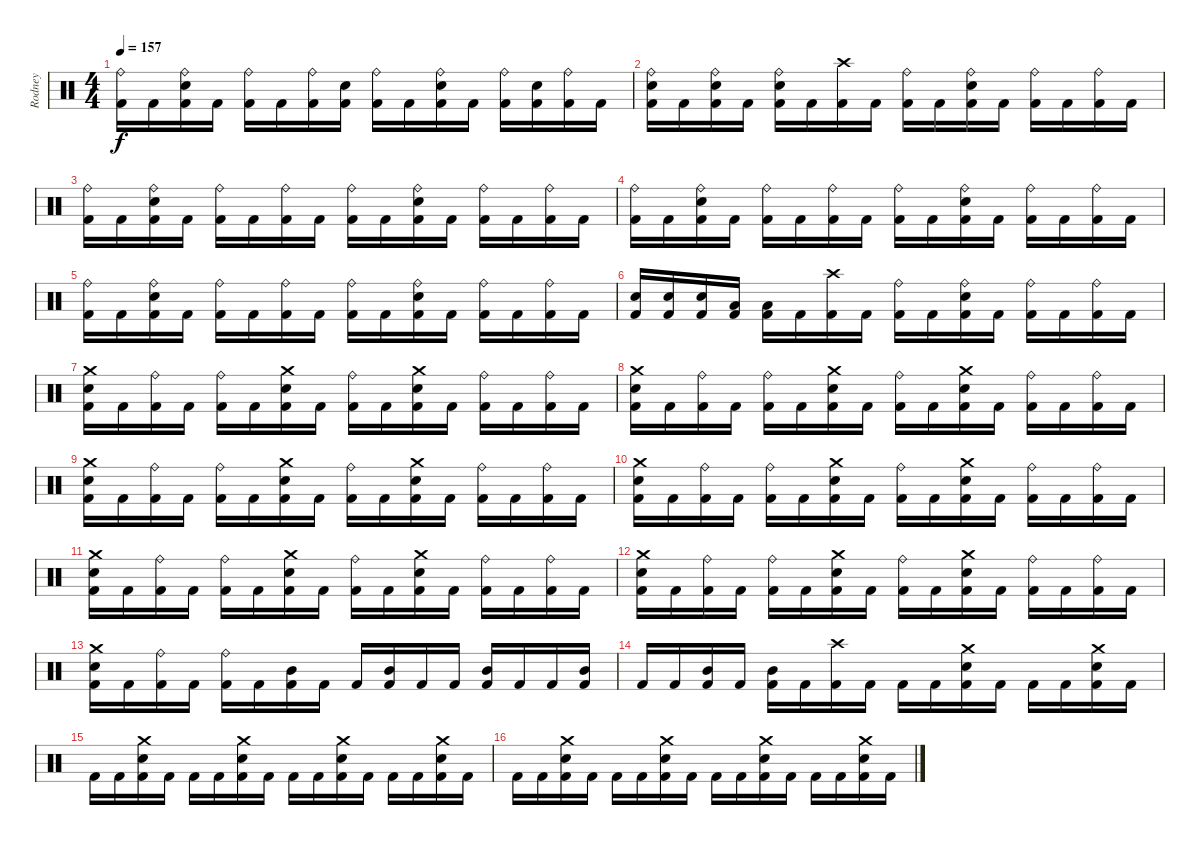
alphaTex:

\track ("Rodney" "Rodney") {instrument percussion}
\staff {score}
\articulation defaults
\ts (4 4)
\tempo 157
\clef neutral
\ks c
("Ride (bell)" "Kick (hit) 2").16{dy f} "Kick (hit) 2".16 ("Ride (bell)" "Snare (hit) 2" "Kick (hit) 2").16 "Kick (hit) 2".16 ("Ride (bell)" "Kick (hit) 2").16 "Kick (hit) 2".16 ("Ride (bell)" "Kick (hit) 2").16 ("Snare (hit) 2" "Kick (hit) 2").16 ("Ride (bell)" "Kick (hit) 2").16 "Kick (hit) 2".16 ("Ride (bell)" "Snare (hit) 2" "Kick (hit) 2").16 "Kick (hit) 2".16 ("Ride (bell)" "Kick (hit) 2").16 ("Snare (hit) 2" "Kick (hit) 2").16 ("Ride (bell)" "Kick (hit) 2").16 "Kick (hit) 2".16 |
("Ride (bell)" "Snare (hit) 2" "Kick (hit) 2").16 "Kick (hit) 2".16 ("Ride (bell)" "Snare (hit) 2" "Kick (hit) 2").16 "Kick (hit) 2".16 ("Ride (bell)" "Snare (hit) 2" "Kick (hit) 2").16 "Kick (hit) 2".16 ("Crash high (hit)" "Kick (hit) 2").16 "Kick (hit) 2".16 ("Ride (bell)" "Kick (hit) 2").16 "Kick (hit) 2".16 ("Ride (bell)" "Snare (hit) 2" "Kick (hit) 2").16 "Kick (hit) 2".16 ("Ride (bell)" "Kick (hit) 2").16 "Kick (hit) 2".16 ("Ride (bell)" "Kick (hit) 2").16 "Kick (hit) 2".16 |
("Ride (bell)" "Kick (hit) 2").16 "Kick (hit) 2".16 ("Ride (bell)" "Snare (hit) 2" "Kick (hit) 2").16 "Kick (hit) 2".16 ("Ride (bell)" "Kick (hit) 2").16 "Kick (hit) 2".16 ("Ride (bell)" "Kick (hit) 2").16 "Kick (hit) 2".16 ("Ride (bell)" "Kick (hit) 2").16 "Kick (hit) 2".16 ("Ride (bell)" "Snare (hit) 2" "Kick (hit) 2").16 "Kick (hit) 2".16 ("Ride (bell)" "Kick (hit) 2").16 "Kick (hit) 2".16 ("Ride (bell)" "Kick (hit) 2").16 "Kick (hit) 2".16 |
("Ride (bell)" "Kick (hit) 2").16 "Kick (hit) 2".16 ("Ride (bell)" "Snare (hit) 2" "Kick (hit) 2").16 "Kick (hit) 2".16 ("Ride (bell)" "Kick (hit) 2").16 "Kick (hit) 2".16 ("Ride (bell)" "Kick (hit) 2").16 "Kick (hit) 2".16 ("Ride (bell)" "Kick (hit) 2").16 "Kick (hit) 2".16 ("Ride (bell)" "Snare (hit) 2" "Kick (hit) 2").16 "Kick (hit) 2".16 ("Ride (bell)" "Kick (hit) 2").16 "Kick (hit) 2".16 ("Ride (bell)" "Kick (hit) 2").16 "Kick (hit) 2".16 |
("Ride (bell)" "Kick (hit) 2").16 "Kick (hit) 2".16 ("Ride (bell)" "Snare (hit) 2" "Kick (hit) 2").16 "Kick (hit) 2".16 ("Ride (bell)" "Kick (hit) 2").16 "Kick (hit) 2".16 ("Ride (bell)" "Kick (hit) 2").16 "Kick (hit) 2".16 ("Ride (bell)" "Kick (hit) 2").16 "Kick (hit) 2".16 ("Ride (bell)" "Snare (hit) 2" "Kick (hit) 2").16 "Kick (hit) 2".16 ("Ride (bell)" "Kick (hit) 2").16 "Kick (hit) 2".16 ("Ride (bell)" "Kick (hit) 2").16 "Kick (hit) 2".16 |
("Snare (hit) 2" "Kick (hit) 2").16 ("Snare (hit) 2" "Kick (hit) 2").16 ("Snare (hit) 2" "Kick (hit) 2").16 ("Low Tom (hit)" "Kick (hit) 2").16 ("Low Tom (hit)" "Kick (hit) 2").16 "Kick (hit) 2".16 ("Crash high (hit)" "Kick (hit) 2").16 "Kick (hit) 2".16 ("Ride (bell)" "Kick (hit) 2").16 "Kick (hit) 2".16 ("Ride (bell)" "Snare (hit) 2" "Kick (hit) 2").16 "Kick (hit) 2".16 ("Ride (bell)" "Kick (hit) 2").16 "Kick (hit) 2".16 ("Ride (bell)" "Kick (hit) 2").16 "Kick (hit) 2".16 |
("Crash medium (hit)" "Snare (hit) 2" "Kick (hit) 2").16 "Kick (hit) 2".16 ("Ride (bell)" "Kick (hit) 2").16 "Kick (hit) 2".16 ("Ride (bell)" "Kick (hit) 2").16 "Kick (hit) 2".16 ("Crash medium (hit)" "Snare (hit) 2" "Kick (hit) 2").16 "Kick (hit) 2".16 ("Ride (bell)" "Kick (hit) 2").16 "Kick (hit) 2".16 ("Crash medium (hit)" "Snare (hit) 2" "Kick (hit) 2").16 "Kick (hit) 2".16 ("Ride (bell)" "Kick (hit) 2").16 "Kick (hit) 2".16 ("Ride (bell)" "Kick (hit) 2").16 "Kick (hit) 2".16 |
("Crash medium (hit)" "Snare (hit) 2" "Kick (hit) 2").16 "Kick (hit) 2".16 ("Ride (bell)" "Kick (hit) 2").16 "Kick (hit) 2".16 ("Ride (bell)" "Kick (hit) 2").16 "Kick (hit) 2".16 ("Crash medium (hit)" "Snare (hit) 2" "Kick (hit) 2").16 "Kick (hit) 2".16 ("Ride (bell)" "Kick (hit) 2").16 "Kick (hit) 2".16 ("Crash medium (hit)" "Snare (hit) 2" "Kick (hit) 2").16 "Kick (hit) 2".16 ("Ride (bell)" "Kick (hit) 2").16 "Kick (hit) 2".16 ("Ride (bell)" "Kick (hit) 2").16 "Kick (hit) 2".16 |
("Crash medium (hit)" "Snare (hit) 2" "Kick (hit) 2").16 "Kick (hit) 2".16 ("Ride (bell)" "Kick (hit) 2").16 "Kick (hit) 2".16 ("Ride (bell)" "Kick (hit) 2").16 "Kick (hit) 2".16 ("Crash medium (hit)" "Snare (hit) 2" "Kick (hit) 2").16 "Kick (hit) 2".16 ("Ride (bell)" "Kick (hit) 2").16 "Kick (hit) 2".16 ("Crash medium (hit)" "Snare (hit) 2" "Kick (hit) 2").16 "Kick (hit) 2".16 ("Ride (bell)" "Kick (hit) 2").16 "Kick (hit) 2".16 ("Ride (bell)" "Kick (hit) 2").16 "Kick (hit) 2".16 |
("Crash medium (hit)" "Snare (hit) 2" "Kick (hit) 2").16 "Kick (hit) 2".16 ("Ride (bell)" "Kick (hit) 2").16 "Kick (hit) 2".16 ("Ride (bell)" "Kick (hit) 2").16 "Kick (hit) 2".16 ("Crash medium (hit)" "Snare (hit) 2" "Kick (hit) 2").16 "Kick (hit) 2".16 ("Ride (bell)" "Kick (hit) 2").16 "Kick (hit) 2".16 ("Crash medium (hit)" "Snare (hit) 2" "Kick (hit) 2").16 "Kick (hit) 2".16 ("Ride (bell)" "Kick (hit) 2").16 "Kick (hit) 2".16 ("Ride (bell)" "Kick (hit) 2").16 "Kick (hit) 2".16 |
("Crash medium (hit)" "Snare (hit) 2" "Kick (hit) 2").16 "Kick (hit) 2".16 ("Ride (bell)" "Kick (hit) 2").16 "Kick (hit) 2".16 ("Ride (bell)" "Kick (hit) 2").16 "Kick (hit) 2".16 ("Crash medium (hit)" "Snare (hit) 2" "Kick (hit) 2").16 "Kick (hit) 2".16 ("Ride (bell)" "Kick (hit) 2").16 "Kick (hit) 2".16 ("Crash medium (hit)" "Snare (hit) 2" "Kick (hit) 2").16 "Kick (hit) 2".16 ("Ride (bell)" "Kick (hit) 2").16 "Kick (hit) 2".16 ("Ride (bell)" "Kick (hit) 2").16 "Kick (hit) 2".16 |
("Crash medium (hit)" "Snare (hit) 2" "Kick (hit) 2").16 "Kick (hit) 2".16 ("Ride (bell)" "Kick (hit) 2").16 "Kick (hit) 2".16 ("Ride (bell)" "Kick (hit) 2").16 "Kick (hit) 2".16 ("Crash medium (hit)" "Snare (hit) 2" "Kick (hit) 2").16 "Kick (hit) 2".16 ("Ride (bell)" "Kick (hit) 2").16 "Kick (hit) 2".16 ("Crash medium (hit)" "Snare (hit) 2" "Kick (hit) 2").16 "Kick (hit) 2".16 ("Ride (bell)" "Kick (hit) 2").16 "Kick (hit) 2".16 ("Ride (bell)" "Kick (hit) 2").16 "Kick (hit) 2".16 |
("Crash medium (hit)" "Snare (hit) 2" "Kick (hit) 2").16 "Kick (hit) 2".16 ("Ride (bell)" "Kick (hit) 2").16 "Kick (hit) 2".16 ("Ride (bell)" "Kick (hit) 2").16 "Kick (hit) 2".16 ("Mid Tom (hit)" "Kick (hit) 2").16 "Kick (hit) 2".16 "Kick (hit) 2".16 ("Mid Tom (hit)" "Kick (hit) 2").16 "Kick (hit) 2".16 "Kick (hit) 2".16 ("Mid Tom (hit)" "Kick (hit) 2").16 "Kick (hit) 2".16 "Kick (hit) 2".16 ("Mid Tom (hit)" "Kick (hit) 2").16 |
"Kick (hit) 2".16 "Kick (hit) 2".16 ("Mid Tom (hit)" "Kick (hit) 2").16 "Kick (hit) 2".16 ("Mid Tom (hit)" "Kick (hit) 2").16 "Kick (hit) 2".16 ("Crash high (hit)" "Kick (hit) 2").16 "Kick (hit) 2".16 "Kick (hit) 2".16 "Kick (hit) 2".16 ("Crash medium (hit)" "Snare (hit) 2" "Kick (hit) 2").16 "Kick (hit) 2".16 "Kick (hit) 2".16 "Kick (hit) 2".16 ("Crash medium (hit)" "Snare (hit) 2" "Kick (hit) 2").16 "Kick (hit) 2".16 |
"Kick (hit) 2".16 "Kick (hit) 2".16 ("Crash medium (hit)" "Snare (hit) 2" "Kick (hit) 2").16 "Kick (hit) 2".16 "Kick (hit) 2".16 "Kick (hit) 2".16 ("Crash medium (hit)" "Snare (hit) 2" "Kick (hit) 2").16 "Kick (hit) 2".16 "Kick (hit) 2".16 "Kick (hit) 2".16 ("Crash medium (hit)" "Snare (hit) 2" "Kick (hit) 2").16 "Kick (hit) 2".16 "Kick (hit) 2".16 "Kick (hit) 2".16 ("Crash medium (hit)" "Snare (hit) 2" "Kick (hit) 2").16 "Kick (hit) 2".16 |
"Kick (hit) 2".16 "Kick (hit) 2".16 ("Crash medium (hit)" "Snare (hit) 2" "Kick (hit) 2").16 "Kick (hit) 2".16 "Kick (hit) 2".16 "Kick (hit) 2".16 ("Crash medium (hit)" "Snare (hit) 2" "Kick (hit) 2").16 "Kick (hit) 2".16 "Kick (hit) 2".16 "Kick (hit) 2".16 ("Crash medium (hit)" "Snare (hit) 2" "Kick (hit) 2").16 "Kick (hit) 2".16 "Kick (hit) 2".16 "Kick (hit) 2".16 ("Crash medium (hit)" "Snare (hit) 2" "Kick (hit) 2").16 "Kick (hit) 2".16
